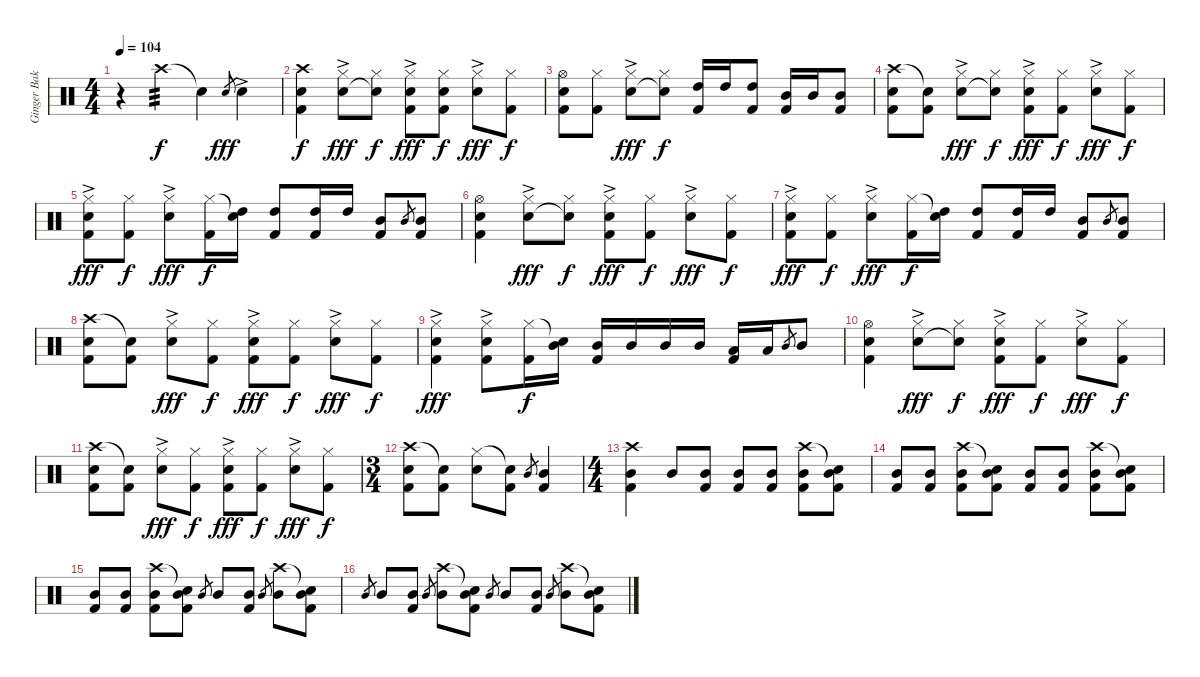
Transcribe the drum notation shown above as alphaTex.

\track ("Ginger Baker" "Ginger Bak") {instrument percussion}
\staff {score}
\articulation defaults
\ts (4 4)
\tempo 104
\clef neutral
\ks c
r.4{dy f} "Crash high (hit)".4{tp 3} "Snare (hit)"{t}.4 "Electric Snare (hit)".8{gr dy fff} "Electric Snare (hit)"{ac}.4 |
("Crash high (hit)" "Electric Snare (hit)" "Kick (hit) 2").4{dy f} ("Hi-Hat (closed)"{ac} "Electric Snare (hit)").8{dy fff} ("Hi-Hat (closed)" "Snare (hit)"{t}).8{dy f} ("Hi-Hat (closed)"{ac} "Electric Snare (hit)" "Kick (hit) 2").8{dy fff} ("Hi-Hat (closed)" "Electric Snare (hit)" "Kick (hit) 2").8{dy f} ("Hi-Hat (closed)"{ac} "Electric Snare (hit)").8{dy fff} ("Hi-Hat (closed)" "Kick (hit) 2").8{dy f} |
("Hi-Hat (open)" "Electric Snare (hit)" "Kick (hit) 2").8 ("Hi-Hat (closed)" "Kick (hit) 2").8 ("Hi-Hat (closed)"{ac} "Electric Snare (hit)").8{dy fff} ("Hi-Hat (closed)" "Snare (hit)"{t}).8{dy f} ("High Tom (hit)" "Kick (hit) 2").16 "High Tom (hit)".16 ("High Tom (hit)" "Kick (hit) 2").8 ("Mid Tom (hit)" "Kick (hit) 2").16 "Mid Tom (hit)".16 ("Mid Tom (hit)" "Kick (hit) 2").8 |
("Crash high (hit)" "Electric Snare (hit)" "Kick (hit) 2").8 ("Snare (hit)"{t} "Kick (hit) 2").8 ("Hi-Hat (closed)"{ac} "Electric Snare (hit)").8{dy fff} ("Hi-Hat (closed)" "Snare (hit)"{t}).8{dy f} ("Hi-Hat (closed)"{ac} "Electric Snare (hit)" "Kick (hit) 2").8{dy fff} ("Hi-Hat (closed)" "Kick (hit) 2").8{dy f} ("Hi-Hat (closed)"{ac} "Electric Snare (hit)").8{dy fff} ("Hi-Hat (closed)" "Kick (hit) 2").8{dy f} |
("Hi-Hat (closed)"{ac} "Electric Snare (hit)" "Kick (hit) 2").8{dy fff} ("Hi-Hat (closed)" "Kick (hit) 2").8{dy f} ("Hi-Hat (closed)"{ac} "Electric Snare (hit)").8{dy fff} ("Hi-Hat (closed)" "Kick (hit) 2").16{dy f} ("Snare (hit)"{t} "High Tom (hit)").16 ("High Tom (hit)" "Kick (hit) 2").8 ("High Tom (hit)" "Kick (hit) 2").16 "High Tom (hit)".16 ("Mid Tom (hit)" "Kick (hit) 2").8 "Mid Tom (hit)".8{gr} ("Mid Tom (hit)" "Kick (hit) 2").8 |
("Hi-Hat (open)" "Electric Snare (hit)" "Kick (hit) 2").4 ("Hi-Hat (closed)"{ac} "Electric Snare (hit)").8{dy fff} ("Hi-Hat (closed)" "Snare (hit)"{t}).8{dy f} ("Hi-Hat (closed)"{ac} "Electric Snare (hit)" "Kick (hit) 2").8{dy fff} ("Hi-Hat (closed)" "Kick (hit) 2").8{dy f} ("Hi-Hat (closed)"{ac} "Electric Snare (hit)").8{dy fff} ("Hi-Hat (closed)" "Kick (hit) 2").8{dy f} |
("Hi-Hat (closed)"{ac} "Electric Snare (hit)" "Kick (hit) 2").8{dy fff} ("Hi-Hat (closed)" "Kick (hit) 2").8{dy f} ("Hi-Hat (closed)"{ac} "Electric Snare (hit)").8{dy fff} ("Hi-Hat (closed)" "Kick (hit) 2").16{dy f} ("Snare (hit)"{t} "High Tom (hit)").16 ("High Tom (hit)" "Kick (hit) 2").8 ("High Tom (hit)" "Kick (hit) 2").16 "High Tom (hit)".16 ("Mid Tom (hit)" "Kick (hit) 2").8 "Mid Tom (hit)".8{gr} ("Mid Tom (hit)" "Kick (hit) 2").8 |
("Crash high (hit)" "Electric Snare (hit)" "Kick (hit) 2").8 ("Snare (hit)"{t} "Kick (hit) 2").8 ("Hi-Hat (closed)"{ac} "Electric Snare (hit)").8{dy fff} ("Hi-Hat (closed)" "Kick (hit) 2").8{dy f} ("Hi-Hat (closed)"{ac} "Electric Snare (hit)" "Kick (hit) 2").8{dy fff} ("Hi-Hat (closed)" "Kick (hit) 2").8{dy f} ("Hi-Hat (closed)"{ac} "Electric Snare (hit)").8{dy fff} ("Hi-Hat (closed)" "Kick (hit) 2").8{dy f} |
("Hi-Hat (closed)"{ac} "Electric Snare (hit)" "Kick (hit) 2").4{dy fff} ("Hi-Hat (closed)"{ac} "Electric Snare (hit)" "Kick (hit) 2").8 ("Hi-Hat (closed)" "Kick (hit) 2").16{dy f} ("Snare (hit)"{t} "Mid Tom (hit)").16 ("Mid Tom (hit)" "Kick (hit) 2").16 "Mid Tom (hit)".16 "Mid Tom (hit)".16 "Mid Tom (hit)".16 ("Low Tom (hit)" "Kick (hit) 2").16 "Low Tom (hit)".16 "Mid Tom (hit)".8{gr} "Mid Tom (hit)".8 |
("Hi-Hat (open)" "Electric Snare (hit)" "Kick (hit) 2").4 ("Hi-Hat (closed)"{ac} "Electric Snare (hit)").8{dy fff} ("Hi-Hat (closed)" "Snare (hit)"{t}).8{dy f} ("Hi-Hat (closed)"{ac} "Electric Snare (hit)" "Kick (hit) 2").8{dy fff} ("Hi-Hat (closed)" "Kick (hit) 2").8{dy f} ("Hi-Hat (closed)"{ac} "Electric Snare (hit)").8{dy fff} ("Hi-Hat (closed)" "Kick (hit) 2").8{dy f} |
("Crash high (hit)" "Electric Snare (hit)" "Kick (hit) 2").8 ("Snare (hit)"{t} "Kick (hit) 2").8 ("Hi-Hat (closed)"{ac} "Electric Snare (hit)").8{dy fff} ("Hi-Hat (closed)" "Kick (hit) 2").8{dy f} ("Hi-Hat (closed)"{ac} "Electric Snare (hit)" "Kick (hit) 2").8{dy fff} ("Hi-Hat (closed)" "Kick (hit) 2").8{dy f} ("Hi-Hat (closed)"{ac} "Electric Snare (hit)").8{dy fff} ("Hi-Hat (closed)" "Kick (hit) 2").8{dy f} |
\ts (3 4)
("Crash high (hit)" "Electric Snare (hit)" "Kick (hit) 2").8 ("Snare (hit)"{t} "Kick (hit) 2").8 ("Hi-Hat (closed)" "Electric Snare (hit)").8 ("Snare (hit)"{t} "Kick (hit) 2").8 "Mid Tom (hit)".8{gr} ("Mid Tom (hit)" "Kick (hit) 2").4 |
\ts (4 4)
("Crash high (hit)" "Mid Tom (hit)" "Kick (hit) 2").4 "Mid Tom (hit)".8 ("Mid Tom (hit)" "Kick (hit) 2").8 ("Mid Tom (hit)" "Kick (hit) 2").8 ("Mid Tom (hit)" "Kick (hit) 2").8 ("Crash high (hit)" "Mid Tom (hit)" "Kick (hit) 2").8 ("Snare (hit)"{t} "Mid Tom (hit)" "Kick (hit) 2").8 |
("Mid Tom (hit)" "Kick (hit) 2").8 ("Mid Tom (hit)" "Kick (hit) 2").8 ("Crash high (hit)" "Mid Tom (hit)" "Kick (hit) 2").8 ("Snare (hit)"{t} "Mid Tom (hit)" "Kick (hit) 2").8 ("Mid Tom (hit)" "Kick (hit) 2").8 ("Mid Tom (hit)" "Kick (hit) 2").8 ("Crash high (hit)" "Mid Tom (hit)" "Kick (hit) 2").8 ("Snare (hit)"{t} "Mid Tom (hit)" "Kick (hit) 2").8 |
("Mid Tom (hit)" "Kick (hit) 2").8 ("Mid Tom (hit)" "Kick (hit) 2").8 ("Crash high (hit)" "Mid Tom (hit)" "Kick (hit) 2").8 ("Snare (hit)"{t} "Mid Tom (hit)" "Kick (hit) 2").8 "Mid Tom (hit)".8{gr} "Mid Tom (hit)".8 ("Mid Tom (hit)" "Kick (hit) 2").8 "Mid Tom (hit)".8{gr} ("Crash high (hit)" "Mid Tom (hit)").8 ("Snare (hit)"{t} "Mid Tom (hit)" "Kick (hit) 2").8 |
"Mid Tom (hit)".8{gr} "Mid Tom (hit)".8 ("Mid Tom (hit)" "Kick (hit) 2").8 "Mid Tom (hit)".8{gr} ("Crash high (hit)" "Mid Tom (hit)").8 ("Snare (hit)"{t} "Mid Tom (hit)" "Kick (hit) 2").8 "Mid Tom (hit)".8{gr} "Mid Tom (hit)".8 ("Mid Tom (hit)" "Kick (hit) 2").8 "Mid Tom (hit)".8{gr} ("Crash high (hit)" "Mid Tom (hit)").8 ("Snare (hit)"{t} "Mid Tom (hit)" "Kick (hit) 2").8
